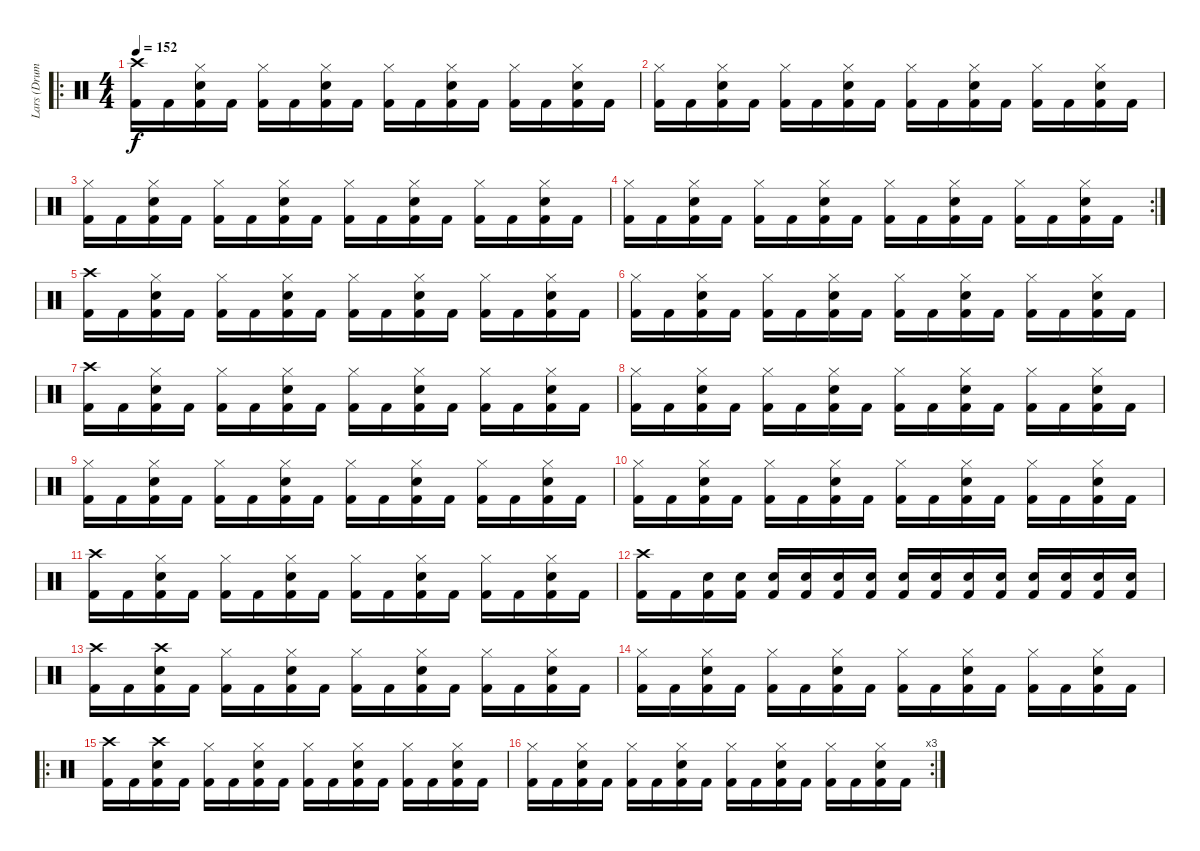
\track ("Lars (Drums)" "Lars (Drum") {instrument percussion}
\staff {score}
\articulation defaults
\ro
\ts (4 4)
\tempo 152
\clef neutral
\ks c
("Crash high (hit)" "Kick (hit) 2").16{dy f} "Kick (hit) 2".16 ("Hi-Hat (closed)" "Snare (hit) 2" "Kick (hit) 2").16 "Kick (hit) 2".16 ("Hi-Hat (closed)" "Kick (hit) 2").16 "Kick (hit) 2".16 ("Hi-Hat (closed)" "Snare (hit) 2" "Kick (hit) 2").16 "Kick (hit) 2".16 ("Hi-Hat (closed)" "Kick (hit) 2").16 "Kick (hit) 2".16 ("Hi-Hat (closed)" "Snare (hit) 2" "Kick (hit) 2").16 "Kick (hit) 2".16 ("Hi-Hat (closed)" "Kick (hit) 2").16 "Kick (hit) 2".16 ("Hi-Hat (closed)" "Snare (hit) 2" "Kick (hit) 2").16 "Kick (hit) 2".16 |
("Hi-Hat (closed)" "Kick (hit) 2").16 "Kick (hit) 2".16 ("Hi-Hat (closed)" "Snare (hit) 2" "Kick (hit) 2").16 "Kick (hit) 2".16 ("Hi-Hat (closed)" "Kick (hit) 2").16 "Kick (hit) 2".16 ("Hi-Hat (closed)" "Snare (hit) 2" "Kick (hit) 2").16 "Kick (hit) 2".16 ("Hi-Hat (closed)" "Kick (hit) 2").16 "Kick (hit) 2".16 ("Hi-Hat (closed)" "Snare (hit) 2" "Kick (hit) 2").16 "Kick (hit) 2".16 ("Hi-Hat (closed)" "Kick (hit) 2").16 "Kick (hit) 2".16 ("Hi-Hat (closed)" "Snare (hit) 2" "Kick (hit) 2").16 "Kick (hit) 2".16 |
("Hi-Hat (closed)" "Kick (hit) 2").16 "Kick (hit) 2".16 ("Hi-Hat (closed)" "Snare (hit) 2" "Kick (hit) 2").16 "Kick (hit) 2".16 ("Hi-Hat (closed)" "Kick (hit) 2").16 "Kick (hit) 2".16 ("Hi-Hat (closed)" "Snare (hit) 2" "Kick (hit) 2").16 "Kick (hit) 2".16 ("Hi-Hat (closed)" "Kick (hit) 2").16 "Kick (hit) 2".16 ("Hi-Hat (closed)" "Snare (hit) 2" "Kick (hit) 2").16 "Kick (hit) 2".16 ("Hi-Hat (closed)" "Kick (hit) 2").16 "Kick (hit) 2".16 ("Hi-Hat (closed)" "Snare (hit) 2" "Kick (hit) 2").16 "Kick (hit) 2".16 |
\rc 2
("Hi-Hat (closed)" "Kick (hit) 2").16 "Kick (hit) 2".16 ("Hi-Hat (closed)" "Snare (hit) 2" "Kick (hit) 2").16 "Kick (hit) 2".16 ("Hi-Hat (closed)" "Kick (hit) 2").16 "Kick (hit) 2".16 ("Hi-Hat (closed)" "Snare (hit) 2" "Kick (hit) 2").16 "Kick (hit) 2".16 ("Hi-Hat (closed)" "Kick (hit) 2").16 "Kick (hit) 2".16 ("Hi-Hat (closed)" "Snare (hit) 2" "Kick (hit) 2").16 "Kick (hit) 2".16 ("Hi-Hat (closed)" "Kick (hit) 2").16 "Kick (hit) 2".16 ("Hi-Hat (closed)" "Snare (hit) 2" "Kick (hit) 2").16 "Kick (hit) 2".16 |
("Crash high (hit)" "Kick (hit) 2").16 "Kick (hit) 2".16 ("Hi-Hat (closed)" "Snare (hit) 2" "Kick (hit) 2").16 "Kick (hit) 2".16 ("Hi-Hat (closed)" "Kick (hit) 2").16 "Kick (hit) 2".16 ("Hi-Hat (closed)" "Snare (hit) 2" "Kick (hit) 2").16 "Kick (hit) 2".16 ("Hi-Hat (closed)" "Kick (hit) 2").16 "Kick (hit) 2".16 ("Hi-Hat (closed)" "Snare (hit) 2" "Kick (hit) 2").16 "Kick (hit) 2".16 ("Hi-Hat (closed)" "Kick (hit) 2").16 "Kick (hit) 2".16 ("Hi-Hat (closed)" "Snare (hit) 2" "Kick (hit) 2").16 "Kick (hit) 2".16 |
("Hi-Hat (closed)" "Kick (hit) 2").16 "Kick (hit) 2".16 ("Hi-Hat (closed)" "Snare (hit) 2" "Kick (hit) 2").16 "Kick (hit) 2".16 ("Hi-Hat (closed)" "Kick (hit) 2").16 "Kick (hit) 2".16 ("Hi-Hat (closed)" "Snare (hit) 2" "Kick (hit) 2").16 "Kick (hit) 2".16 ("Hi-Hat (closed)" "Kick (hit) 2").16 "Kick (hit) 2".16 ("Hi-Hat (closed)" "Snare (hit) 2" "Kick (hit) 2").16 "Kick (hit) 2".16 ("Hi-Hat (closed)" "Kick (hit) 2").16 "Kick (hit) 2".16 ("Hi-Hat (closed)" "Snare (hit) 2" "Kick (hit) 2").16 "Kick (hit) 2".16 |
("Crash high (hit)" "Kick (hit) 2").16 "Kick (hit) 2".16 ("Hi-Hat (closed)" "Snare (hit) 2" "Kick (hit) 2").16 "Kick (hit) 2".16 ("Hi-Hat (closed)" "Kick (hit) 2").16 "Kick (hit) 2".16 ("Hi-Hat (closed)" "Snare (hit) 2" "Kick (hit) 2").16 "Kick (hit) 2".16 ("Hi-Hat (closed)" "Kick (hit) 2").16 "Kick (hit) 2".16 ("Hi-Hat (closed)" "Snare (hit) 2" "Kick (hit) 2").16 "Kick (hit) 2".16 ("Hi-Hat (closed)" "Kick (hit) 2").16 "Kick (hit) 2".16 ("Hi-Hat (closed)" "Snare (hit) 2" "Kick (hit) 2").16 "Kick (hit) 2".16 |
("Hi-Hat (closed)" "Kick (hit) 2").16 "Kick (hit) 2".16 ("Hi-Hat (closed)" "Snare (hit) 2" "Kick (hit) 2").16 "Kick (hit) 2".16 ("Hi-Hat (closed)" "Kick (hit) 2").16 "Kick (hit) 2".16 ("Hi-Hat (closed)" "Snare (hit) 2" "Kick (hit) 2").16 "Kick (hit) 2".16 ("Hi-Hat (closed)" "Kick (hit) 2").16 "Kick (hit) 2".16 ("Hi-Hat (closed)" "Snare (hit) 2" "Kick (hit) 2").16 "Kick (hit) 2".16 ("Hi-Hat (closed)" "Kick (hit) 2").16 "Kick (hit) 2".16 ("Hi-Hat (closed)" "Snare (hit) 2" "Kick (hit) 2").16 "Kick (hit) 2".16 |
("Hi-Hat (closed)" "Kick (hit) 2").16 "Kick (hit) 2".16 ("Hi-Hat (closed)" "Snare (hit) 2" "Kick (hit) 2").16 "Kick (hit) 2".16 ("Hi-Hat (closed)" "Kick (hit) 2").16 "Kick (hit) 2".16 ("Hi-Hat (closed)" "Snare (hit) 2" "Kick (hit) 2").16 "Kick (hit) 2".16 ("Hi-Hat (closed)" "Kick (hit) 2").16 "Kick (hit) 2".16 ("Hi-Hat (closed)" "Snare (hit) 2" "Kick (hit) 2").16 "Kick (hit) 2".16 ("Hi-Hat (closed)" "Kick (hit) 2").16 "Kick (hit) 2".16 ("Hi-Hat (closed)" "Snare (hit) 2" "Kick (hit) 2").16 "Kick (hit) 2".16 |
("Hi-Hat (closed)" "Kick (hit) 2").16 "Kick (hit) 2".16 ("Hi-Hat (closed)" "Snare (hit) 2" "Kick (hit) 2").16 "Kick (hit) 2".16 ("Hi-Hat (closed)" "Kick (hit) 2").16 "Kick (hit) 2".16 ("Hi-Hat (closed)" "Snare (hit) 2" "Kick (hit) 2").16 "Kick (hit) 2".16 ("Hi-Hat (closed)" "Kick (hit) 2").16 "Kick (hit) 2".16 ("Hi-Hat (closed)" "Snare (hit) 2" "Kick (hit) 2").16 "Kick (hit) 2".16 ("Hi-Hat (closed)" "Kick (hit) 2").16 "Kick (hit) 2".16 ("Hi-Hat (closed)" "Snare (hit) 2" "Kick (hit) 2").16 "Kick (hit) 2".16 |
("Crash high (hit)" "Kick (hit) 2").16 "Kick (hit) 2".16 ("Hi-Hat (closed)" "Snare (hit) 2" "Kick (hit) 2").16 "Kick (hit) 2".16 ("Hi-Hat (closed)" "Kick (hit) 2").16 "Kick (hit) 2".16 ("Hi-Hat (closed)" "Snare (hit) 2" "Kick (hit) 2").16 "Kick (hit) 2".16 ("Hi-Hat (closed)" "Kick (hit) 2").16 "Kick (hit) 2".16 ("Hi-Hat (closed)" "Snare (hit) 2" "Kick (hit) 2").16 "Kick (hit) 2".16 ("Hi-Hat (closed)" "Kick (hit) 2").16 "Kick (hit) 2".16 ("Hi-Hat (closed)" "Snare (hit) 2" "Kick (hit) 2").16 "Kick (hit) 2".16 |
("Crash high (hit)" "Kick (hit) 2").16 "Kick (hit) 2".16 ("Snare (hit) 2" "Kick (hit) 2").16 ("Snare (hit) 2" "Kick (hit) 2").16 ("Snare (hit) 2" "Kick (hit) 2").16 ("Snare (hit) 2" "Kick (hit) 2").16 ("Snare (hit) 2" "Kick (hit) 2").16 ("Snare (hit) 2" "Kick (hit) 2").16 ("Snare (hit) 2" "Kick (hit) 2").16 ("Snare (hit) 2" "Kick (hit) 2").16 ("Snare (hit) 2" "Kick (hit) 2").16 ("Snare (hit) 2" "Kick (hit) 2").16 ("Snare (hit) 2" "Kick (hit) 2").16 ("Snare (hit) 2" "Kick (hit) 2").16 ("Snare (hit) 2" "Kick (hit) 2").16 ("Snare (hit) 2" "Kick (hit) 2").16 |
("Crash high (hit)" "Kick (hit) 2").16 "Kick (hit) 2".16 ("Crash high (hit)" "Snare (hit) 2" "Kick (hit) 2").16 "Kick (hit) 2".16 ("Hi-Hat (closed)" "Kick (hit) 2").16 "Kick (hit) 2".16 ("Hi-Hat (closed)" "Snare (hit) 2" "Kick (hit) 2").16 "Kick (hit) 2".16 ("Hi-Hat (closed)" "Kick (hit) 2").16 "Kick (hit) 2".16 ("Hi-Hat (closed)" "Snare (hit) 2" "Kick (hit) 2").16 "Kick (hit) 2".16 ("Hi-Hat (closed)" "Kick (hit) 2").16 "Kick (hit) 2".16 ("Hi-Hat (closed)" "Snare (hit) 2" "Kick (hit) 2").16 "Kick (hit) 2".16 |
("Hi-Hat (closed)" "Kick (hit) 2").16 "Kick (hit) 2".16 ("Hi-Hat (closed)" "Snare (hit) 2" "Kick (hit) 2").16 "Kick (hit) 2".16 ("Hi-Hat (closed)" "Kick (hit) 2").16 "Kick (hit) 2".16 ("Hi-Hat (closed)" "Snare (hit) 2" "Kick (hit) 2").16 "Kick (hit) 2".16 ("Hi-Hat (closed)" "Kick (hit) 2").16 "Kick (hit) 2".16 ("Hi-Hat (closed)" "Snare (hit) 2" "Kick (hit) 2").16 "Kick (hit) 2".16 ("Hi-Hat (closed)" "Kick (hit) 2").16 "Kick (hit) 2".16 ("Hi-Hat (closed)" "Snare (hit) 2" "Kick (hit) 2").16 "Kick (hit) 2".16 |
\ro
("Crash high (hit)" "Kick (hit) 2").16 "Kick (hit) 2".16 ("Crash high (hit)" "Snare (hit) 2" "Kick (hit) 2").16 "Kick (hit) 2".16 ("Hi-Hat (closed)" "Kick (hit) 2").16 "Kick (hit) 2".16 ("Hi-Hat (closed)" "Snare (hit) 2" "Kick (hit) 2").16 "Kick (hit) 2".16 ("Hi-Hat (closed)" "Kick (hit) 2").16 "Kick (hit) 2".16 ("Hi-Hat (closed)" "Snare (hit) 2" "Kick (hit) 2").16 "Kick (hit) 2".16 ("Hi-Hat (closed)" "Kick (hit) 2").16 "Kick (hit) 2".16 ("Hi-Hat (closed)" "Snare (hit) 2" "Kick (hit) 2").16 "Kick (hit) 2".16 |
\rc 3
("Hi-Hat (closed)" "Kick (hit) 2").16 "Kick (hit) 2".16 ("Hi-Hat (closed)" "Snare (hit) 2" "Kick (hit) 2").16 "Kick (hit) 2".16 ("Hi-Hat (closed)" "Kick (hit) 2").16 "Kick (hit) 2".16 ("Hi-Hat (closed)" "Snare (hit) 2" "Kick (hit) 2").16 "Kick (hit) 2".16 ("Hi-Hat (closed)" "Kick (hit) 2").16 "Kick (hit) 2".16 ("Hi-Hat (closed)" "Snare (hit) 2" "Kick (hit) 2").16 "Kick (hit) 2".16 ("Hi-Hat (closed)" "Kick (hit) 2").16 "Kick (hit) 2".16 ("Hi-Hat (closed)" "Snare (hit) 2" "Kick (hit) 2").16 "Kick (hit) 2".16
